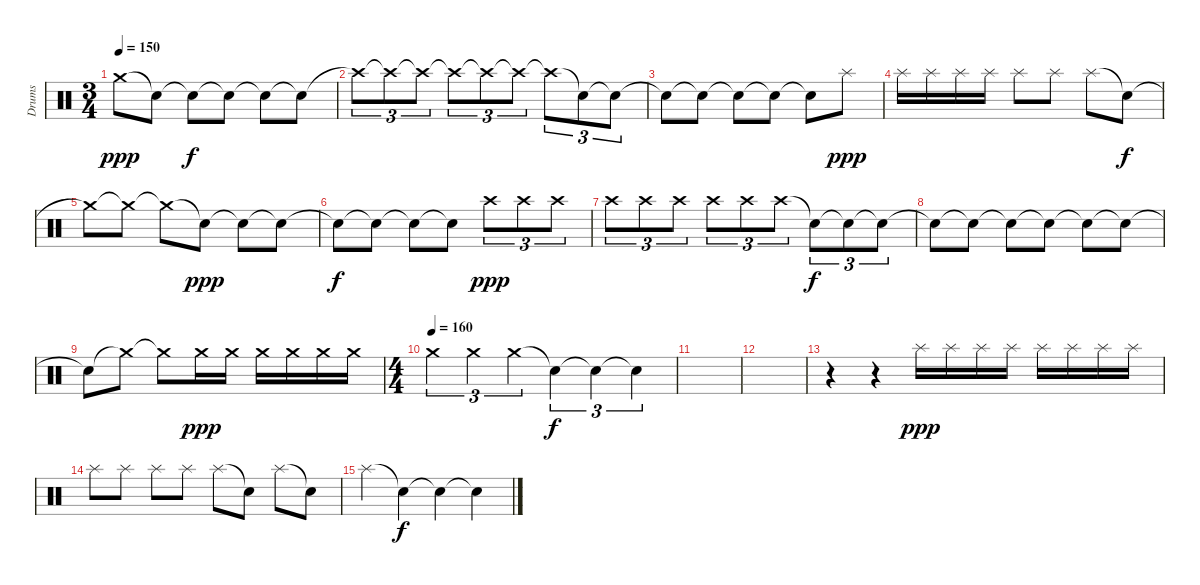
\track ("Drums" "Drums") {instrument percussion}
\staff {score}
\articulation defaults
\ts (3 4)
\tempo 150
\clef neutral
\ks c "Crash medium (hit)"{t}.8{dy ppp} "Snare (hit)"{t}.8 "Snare (hit)"{t}.8{dy f} "Snare (hit)"{t}.8 "Snare (hit)"{t}.8 "Snare (hit)"{t}.8
|
"Crash high (hit)"{t}.8{tu (3 2)} "Crash high (hit)"{t}.8{tu (3 2)} "Crash high (hit)"{t}.8{tu (3 2)} "Crash high (hit)"{t}.8{tu (3 2)} "Crash high (hit)"{t}.8{tu (3 2)} "Crash high (hit)"{t}.8{tu (3 2)} "Crash high (hit)"{t}.8{tu (3 2)} "Snare (hit)"{t}.8{tu (3 2)} "Snare (hit)"{t}.8{tu (3 2)} |
"Snare (hit)"{t}.8 "Snare (hit)"{t}.8 "Snare (hit)"{t}.8 "Snare (hit)"{t}.8 "Snare (hit)"{t}.8 "Splash (hit)".8{dy ppp} |
"Splash (hit)".16 "Splash (hit)".16 "Splash (hit)".16 "Splash (hit)".16 "Splash (hit)".8 "Splash (hit)".8 "Splash (hit)".8 "Snare (hit)"{t}.8{dy f} |
"Crash medium (hit)"{t}.8 "Crash medium (hit)"{t}.8 "Crash medium (hit)"{t}.8 "Snare (hit)"{t}.8{dy ppp} "Snare (hit)"{t}.8 "Snare (hit)"{t}.8 |
"Snare (hit)"{t}.8{dy f} "Snare (hit)"{t}.8 "Snare (hit)"{t}.8 "Snare (hit)"{t}.8 "Crash high (hit)".8{tu (3 2) dy ppp} "Crash high (hit)".8{tu (3 2)} "Crash high (hit)".8{tu (3 2)} |
"Crash high (hit)".8{tu (3 2)} "Crash high (hit)".8{tu (3 2)} "Crash high (hit)".8{tu (3 2)} "Crash high (hit)".8{tu (3 2)} "Crash high (hit)".8{tu (3 2)} "Crash high (hit)".8{tu (3 2)} "Snare (hit)"{t}.8{tu (3 2) dy f} "Snare (hit)"{t}.8{tu (3 2)} "Snare (hit)"{t}.8{tu (3 2)} |
"Snare (hit)"{t}.8 "Snare (hit)"{t}.8 "Snare (hit)"{t}.8 "Snare (hit)"{t}.8 "Snare (hit)"{t}.8 "Snare (hit)"{t}.8 |
"Snare (hit)"{t}.8 "Crash medium (hit)"{t}.8 "Crash medium (hit)"{t}.8 "Crash medium (hit)".16{dy ppp} "Crash medium (hit)".16 "Crash medium (hit)".16 "Crash medium (hit)".16 "Crash medium (hit)".16 "Crash medium (hit)".16 |
\ts (4 4)
\tempo (160)
"Crash medium (hit)".4{tu (3 2)} "Crash medium (hit)".4{tu (3 2)} "Crash medium (hit)".4{tu (3 2)} "Snare (hit)"{t}.4{tu (3 2) dy f} "Snare (hit)"{t}.4{tu (3 2)} "Snare (hit)"{t}.4{tu (3 2)} |
|
|
r.4 r.4 "Splash (hit)".16{dy ppp} "Splash (hit)".16 "Splash (hit)".16 "Splash (hit)".16 "Splash (hit)".16 "Splash (hit)".16 "Splash (hit)".16 "Splash (hit)".16 |
"Splash (hit)".8 "Splash (hit)".8 "Splash (hit)".8 "Splash (hit)".8 "Splash (hit)".8 "Snare (hit)"{t}.8 "Splash (hit)".8 "Snare (hit)"{t}.8 |
"Splash (hit)".4 "Snare (hit)"{t}.4{dy f} "Snare (hit)"{t}.4 "Snare (hit)"{t}.4
